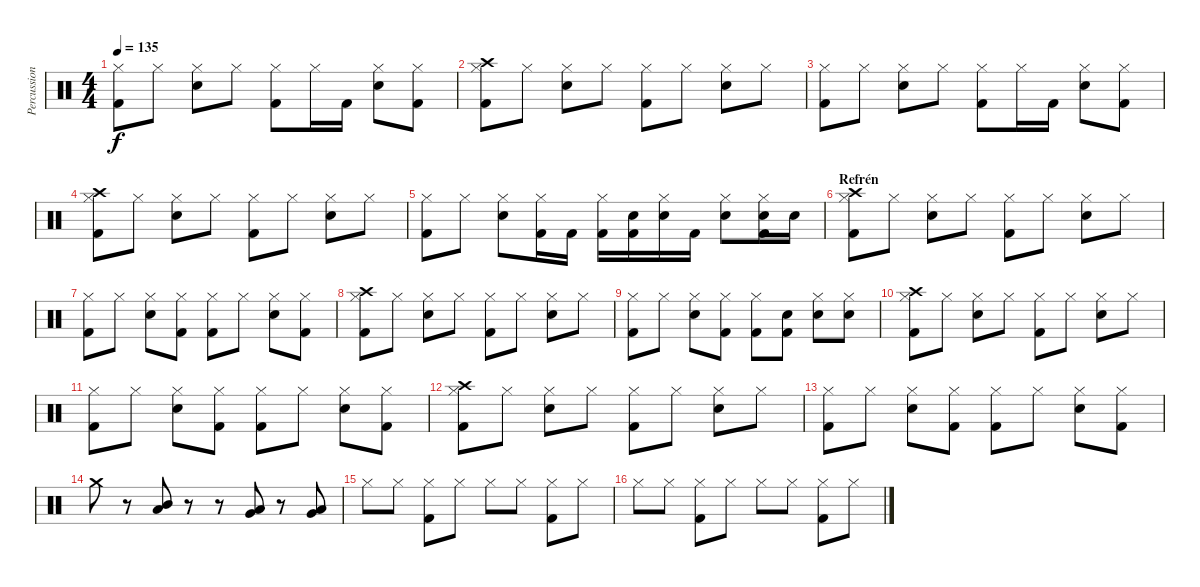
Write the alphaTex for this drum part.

\track ("Percussion" "Percussion") {instrument percussion}
\staff {score}
\articulation defaults
\ts (4 4)
\tempo 135
\clef neutral
\ks c
("Hi-Hat (closed)" "Kick (hit) 2").8{dy f} "Hi-Hat (closed)".8 ("Hi-Hat (closed)" "Electric Snare (hit)").8 "Hi-Hat (closed)".8 ("Hi-Hat (closed)" "Kick (hit) 2").8 "Hi-Hat (closed)".16 "Kick (hit) 2".16 ("Hi-Hat (closed)" "Electric Snare (hit)").8 ("Hi-Hat (closed)" "Kick (hit) 2").8 |
("Hi-Hat (closed)" "Kick (hit) 2" "Crash high (hit)").8 "Hi-Hat (closed)".8 ("Hi-Hat (closed)" "Electric Snare (hit)").8 "Hi-Hat (closed)".8 ("Hi-Hat (closed)" "Kick (hit) 2").8 "Hi-Hat (closed)".8 ("Hi-Hat (closed)" "Electric Snare (hit)").8 "Hi-Hat (closed)".8 |
("Hi-Hat (closed)" "Kick (hit) 2").8 "Hi-Hat (closed)".8 ("Hi-Hat (closed)" "Electric Snare (hit)").8 "Hi-Hat (closed)".8 ("Hi-Hat (closed)" "Kick (hit) 2").8 "Hi-Hat (closed)".16 "Kick (hit) 2".16 ("Hi-Hat (closed)" "Electric Snare (hit)").8 ("Hi-Hat (closed)" "Kick (hit) 2").8 |
("Hi-Hat (closed)" "Kick (hit) 2" "Crash high (hit)").8 "Hi-Hat (closed)".8 ("Hi-Hat (closed)" "Electric Snare (hit)").8 "Hi-Hat (closed)".8 ("Hi-Hat (closed)" "Kick (hit) 2").8 "Hi-Hat (closed)".8 ("Hi-Hat (closed)" "Electric Snare (hit)").8 "Hi-Hat (closed)".8 |
("Hi-Hat (closed)" "Kick (hit) 2").8 "Hi-Hat (closed)".8 ("Hi-Hat (closed)" "Electric Snare (hit)").8 ("Hi-Hat (closed)" "Kick (hit) 2").16 "Kick (hit) 2".16 ("Hi-Hat (closed)" "Kick (hit) 2").16 ("Kick (hit) 2" "Electric Snare (hit)").16 ("Hi-Hat (closed)" "Electric Snare (hit)").16 "Kick (hit) 2".16 ("Hi-Hat (closed)" "Electric Snare (hit)").8 ("Hi-Hat (closed)" "Kick (hit) 2" "Electric Snare (hit)").16 "Electric Snare (hit)".16 |
\section ("" "Refrén")
("Hi-Hat (closed)" "Kick (hit) 2" "Crash high (hit)").8 "Hi-Hat (closed)".8 ("Hi-Hat (closed)" "Electric Snare (hit)").8 "Hi-Hat (closed)".8 ("Hi-Hat (closed)" "Kick (hit) 2").8 "Hi-Hat (closed)".8 ("Hi-Hat (closed)" "Electric Snare (hit)").8 "Hi-Hat (closed)".8 |
("Hi-Hat (closed)" "Kick (hit) 2").8 "Hi-Hat (closed)".8 ("Hi-Hat (closed)" "Electric Snare (hit)").8 ("Hi-Hat (closed)" "Kick (hit) 2").8 ("Hi-Hat (closed)" "Kick (hit) 2").8 "Hi-Hat (closed)".8 ("Hi-Hat (closed)" "Electric Snare (hit)").8 ("Hi-Hat (closed)" "Kick (hit) 2").8 |
("Hi-Hat (closed)" "Kick (hit) 2" "Crash high (hit)").8 "Hi-Hat (closed)".8 ("Hi-Hat (closed)" "Electric Snare (hit)").8 "Hi-Hat (closed)".8 ("Hi-Hat (closed)" "Kick (hit) 2").8 "Hi-Hat (closed)".8 ("Hi-Hat (closed)" "Electric Snare (hit)").8 "Hi-Hat (closed)".8 |
("Hi-Hat (closed)" "Kick (hit) 2").8 "Hi-Hat (closed)".8 ("Hi-Hat (closed)" "Electric Snare (hit)").8 ("Hi-Hat (closed)" "Kick (hit) 2").8 ("Hi-Hat (closed)" "Kick (hit) 2").8 ("Kick (hit) 2" "Electric Snare (hit)").8 ("Hi-Hat (closed)" "Electric Snare (hit)").8 ("Hi-Hat (closed)" "Electric Snare (hit)").8 |
("Hi-Hat (closed)" "Kick (hit) 2" "Crash high (hit)").8 "Hi-Hat (closed)".8 ("Hi-Hat (closed)" "Electric Snare (hit)").8 "Hi-Hat (closed)".8 ("Hi-Hat (closed)" "Kick (hit) 2").8 "Hi-Hat (closed)".8 ("Hi-Hat (closed)" "Electric Snare (hit)").8 "Hi-Hat (closed)".8 |
("Hi-Hat (closed)" "Kick (hit) 2").8 "Hi-Hat (closed)".8 ("Hi-Hat (closed)" "Electric Snare (hit)").8 ("Hi-Hat (closed)" "Kick (hit) 2").8 ("Hi-Hat (closed)" "Kick (hit) 2").8 "Hi-Hat (closed)".8 ("Hi-Hat (closed)" "Electric Snare (hit)").8 ("Hi-Hat (closed)" "Kick (hit) 2").8 |
("Hi-Hat (closed)" "Kick (hit) 2" "Crash high (hit)").8 "Hi-Hat (closed)".8 ("Hi-Hat (closed)" "Electric Snare (hit)").8 "Hi-Hat (closed)".8 ("Hi-Hat (closed)" "Kick (hit) 2").8 "Hi-Hat (closed)".8 ("Hi-Hat (closed)" "Electric Snare (hit)").8 "Hi-Hat (closed)".8 |
("Hi-Hat (closed)" "Kick (hit) 2").8 "Hi-Hat (closed)".8 ("Hi-Hat (closed)" "Electric Snare (hit)").8 ("Hi-Hat (closed)" "Kick (hit) 2").8 ("Hi-Hat (closed)" "Kick (hit) 2").8 "Hi-Hat (closed)".8 ("Hi-Hat (closed)" "Electric Snare (hit)").8 ("Hi-Hat (closed)" "Kick (hit) 2").8 |
"Crash medium (hit)".8 r.8 ("Mid Tom (hit)" "Low Tom (hit)").8 r.8 r.8 ("Low Tom (hit)" "Very Low Tom (hit)").8 r.8 ("Very Low Tom (hit)" "Low Floor Tom (hit)").8 |
"Hi-Hat (closed)".8 "Hi-Hat (closed)".8 ("Hi-Hat (closed)" "Kick (hit) 2").8 "Hi-Hat (closed)".8 "Hi-Hat (closed)".8 "Hi-Hat (closed)".8 ("Hi-Hat (closed)" "Kick (hit) 2").8 "Hi-Hat (closed)".8 |
"Hi-Hat (closed)".8 "Hi-Hat (closed)".8 ("Hi-Hat (closed)" "Kick (hit) 2").8 "Hi-Hat (closed)".8 "Hi-Hat (closed)".8 "Hi-Hat (closed)".8 ("Hi-Hat (closed)" "Kick (hit) 2").8 "Hi-Hat (closed)".8
